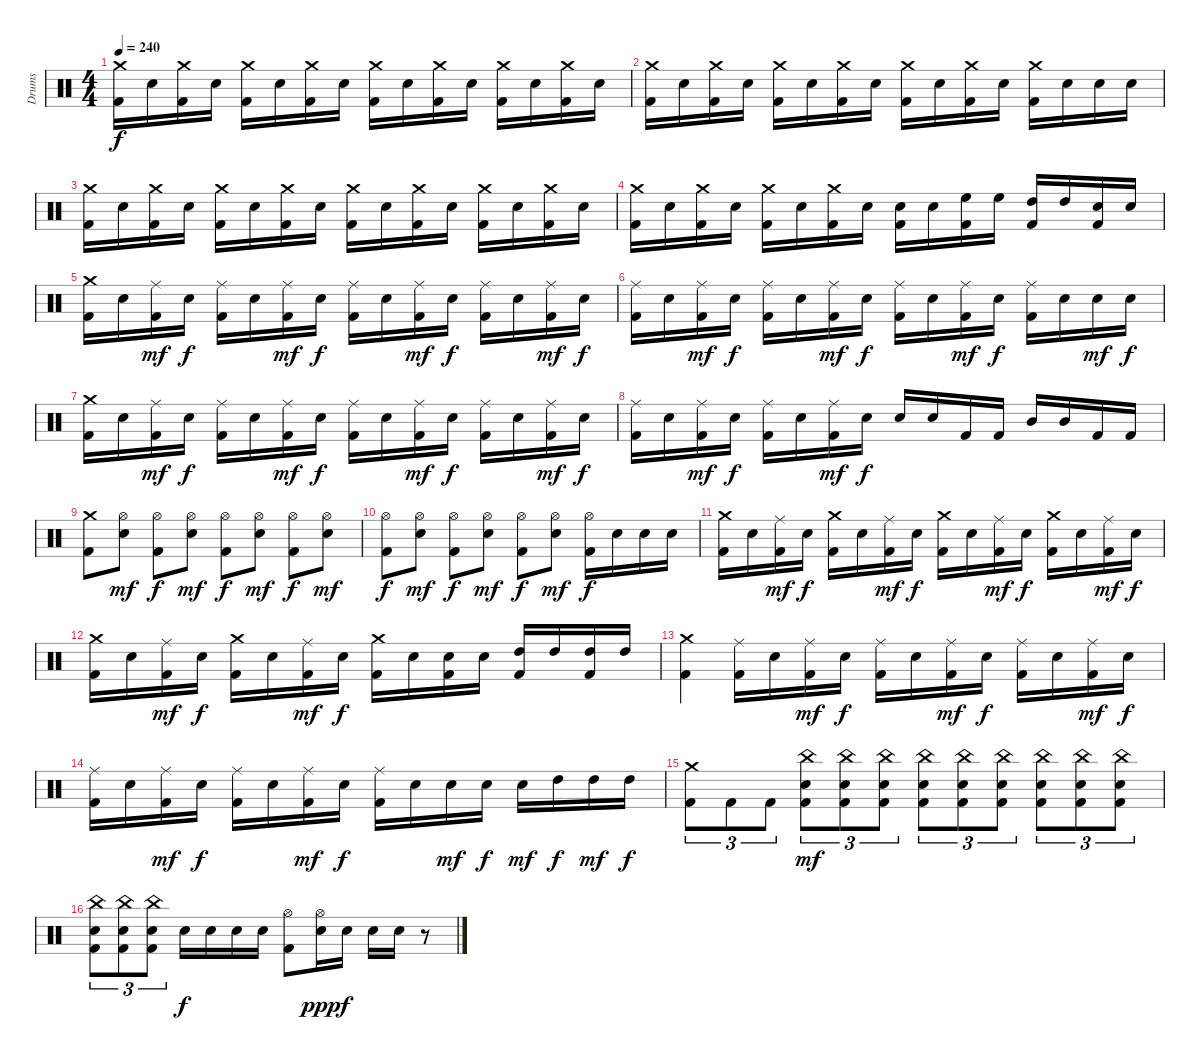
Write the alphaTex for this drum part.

\track ("Drums" "Drums") {instrument percussion}
\staff {score}
\articulation defaults
\ts (4 4)
\tempo 240
\clef neutral
\ks c
("Crash medium (hit)" "Kick (hit) 2").16{dy f} "Electric Snare (hit)".16 ("Crash medium (hit)" "Kick (hit) 2").16 "Electric Snare (hit)".16 ("Crash medium (hit)" "Kick (hit) 2").16 "Electric Snare (hit)".16 ("Crash medium (hit)" "Kick (hit) 2").16 "Electric Snare (hit)".16 ("Crash medium (hit)" "Kick (hit) 2").16 "Electric Snare (hit)".16 ("Crash medium (hit)" "Kick (hit) 2").16 "Electric Snare (hit)".16 ("Crash medium (hit)" "Kick (hit) 2").16 "Electric Snare (hit)".16 ("Crash medium (hit)" "Kick (hit) 2").16 "Electric Snare (hit)".16 |
("Crash medium (hit)" "Kick (hit) 2").16 "Electric Snare (hit)".16 ("Crash medium (hit)" "Kick (hit) 2").16 "Electric Snare (hit)".16 ("Crash medium (hit)" "Kick (hit) 2").16 "Electric Snare (hit)".16 ("Crash medium (hit)" "Kick (hit) 2").16 "Electric Snare (hit)".16 ("Crash medium (hit)" "Kick (hit) 2").16 "Electric Snare (hit)".16 ("Crash medium (hit)" "Kick (hit) 2").16 "Electric Snare (hit)".16 ("Crash medium (hit)" "Kick (hit) 2").16 "Electric Snare (hit)".16 "Electric Snare (hit)".16 "Electric Snare (hit)".16 |
("Crash medium (hit)" "Kick (hit) 2").16 "Electric Snare (hit)".16 ("Crash medium (hit)" "Kick (hit) 2").16 "Electric Snare (hit)".16 ("Crash medium (hit)" "Kick (hit) 2").16 "Electric Snare (hit)".16 ("Crash medium (hit)" "Kick (hit) 2").16 "Electric Snare (hit)".16 ("Crash medium (hit)" "Kick (hit) 2").16 "Electric Snare (hit)".16 ("Crash medium (hit)" "Kick (hit) 2").16 "Electric Snare (hit)".16 ("Crash medium (hit)" "Kick (hit) 2").16 "Electric Snare (hit)".16 ("Crash medium (hit)" "Kick (hit) 2").16 "Electric Snare (hit)".16 |
("Crash medium (hit)" "Kick (hit) 2").16 "Electric Snare (hit)".16 ("Crash medium (hit)" "Kick (hit) 2").16 "Electric Snare (hit)".16 ("Crash medium (hit)" "Kick (hit) 2").16 "Electric Snare (hit)".16 ("Crash medium (hit)" "Kick (hit) 2").16 "Electric Snare (hit)".16 ("Electric Snare (hit)" "Kick (hit) 2").16 "Electric Snare (hit)".16 ("High Floor Tom (hit)" "Kick (hit) 2").16 "High Floor Tom (hit)".16 ("High Tom (hit)" "Kick (hit) 2").16 "High Tom (hit)".16 ("Electric Snare (hit)" "Kick (hit) 2").16 "Electric Snare (hit)".16 |
("Crash medium (hit)" "Kick (hit) 2").16 "Electric Snare (hit)".16 ("Ride (middle)" "Kick (hit) 2").16{dy mf} "Electric Snare (hit)".16{dy f} ("Ride (middle)" "Kick (hit) 2").16 "Electric Snare (hit)".16 ("Ride (middle)" "Kick (hit) 2").16{dy mf} "Electric Snare (hit)".16{dy f} ("Ride (middle)" "Kick (hit) 2").16 "Electric Snare (hit)".16 ("Ride (middle)" "Kick (hit) 2").16{dy mf} "Electric Snare (hit)".16{dy f} ("Ride (middle)" "Kick (hit) 2").16 "Electric Snare (hit)".16 ("Ride (middle)" "Kick (hit) 2").16{dy mf} "Electric Snare (hit)".16{dy f} |
("Ride (middle)" "Kick (hit) 2").16 "Electric Snare (hit)".16 ("Ride (middle)" "Kick (hit) 2").16{dy mf} "Electric Snare (hit)".16{dy f} ("Ride (middle)" "Kick (hit) 2").16 "Electric Snare (hit)".16 ("Ride (middle)" "Kick (hit) 2").16{dy mf} "Electric Snare (hit)".16{dy f} ("Ride (middle)" "Kick (hit) 2").16 "Electric Snare (hit)".16 ("Ride (middle)" "Kick (hit) 2").16{dy mf} "Electric Snare (hit)".16{dy f} ("Ride (middle)" "Kick (hit) 2").16 "Electric Snare (hit)".16 "Electric Snare (hit)".16{dy mf} "Electric Snare (hit)".16{dy f} |
("Crash medium (hit)" "Kick (hit) 2").16 "Electric Snare (hit)".16 ("Ride (middle)" "Kick (hit) 2").16{dy mf} "Electric Snare (hit)".16{dy f} ("Ride (middle)" "Kick (hit) 2").16 "Electric Snare (hit)".16 ("Ride (middle)" "Kick (hit) 2").16{dy mf} "Electric Snare (hit)".16{dy f} ("Ride (middle)" "Kick (hit) 2").16 "Electric Snare (hit)".16 ("Ride (middle)" "Kick (hit) 2").16{dy mf} "Electric Snare (hit)".16{dy f} ("Ride (middle)" "Kick (hit) 2").16 "Electric Snare (hit)".16 ("Ride (middle)" "Kick (hit) 2").16{dy mf} "Electric Snare (hit)".16{dy f} |
("Ride (middle)" "Kick (hit) 2").16 "Electric Snare (hit)".16 ("Ride (middle)" "Kick (hit) 2").16{dy mf} "Electric Snare (hit)".16{dy f} ("Ride (middle)" "Kick (hit) 2").16 "Electric Snare (hit)".16 ("Ride (middle)" "Kick (hit) 2").16{dy mf} "Electric Snare (hit)".16{dy f} "Electric Snare (hit)".16 "Electric Snare (hit)".16 "Kick (hit) 2".16 "Kick (hit) 2".16 "Mid Tom (hit)".16 "Mid Tom (hit)".16 "Kick (hit) 2".16 "Kick (hit) 2".16 |
("Crash medium (hit)" "Kick (hit) 2").8 ("Hi-Hat (open)" "Electric Snare (hit)").8{dy mf} ("Hi-Hat (open)" "Kick (hit) 2").8{dy f} ("Hi-Hat (open)" "Electric Snare (hit)").8{dy mf} ("Hi-Hat (open)" "Kick (hit) 2").8{dy f} ("Hi-Hat (open)" "Electric Snare (hit)").8{dy mf} ("Hi-Hat (open)" "Kick (hit) 2").8{dy f} ("Hi-Hat (open)" "Electric Snare (hit)").8{dy mf} |
("Hi-Hat (open)" "Kick (hit) 2").8{dy f} ("Hi-Hat (open)" "Electric Snare (hit)").8{dy mf} ("Hi-Hat (open)" "Kick (hit) 2").8{dy f} ("Hi-Hat (open)" "Electric Snare (hit)").8{dy mf} ("Hi-Hat (open)" "Kick (hit) 2").8{dy f} ("Hi-Hat (open)" "Electric Snare (hit)").8{dy mf} ("Hi-Hat (open)" "Kick (hit) 2").16{dy f} "Electric Snare (hit)".16 "Electric Snare (hit)".16 "Electric Snare (hit)".16 |
("Crash medium (hit)" "Kick (hit) 2").16 "Electric Snare (hit)".16 ("Ride (middle)" "Kick (hit) 2").16{dy mf} "Electric Snare (hit)".16{dy f} ("Crash medium (hit)" "Kick (hit) 2").16 "Electric Snare (hit)".16 ("Ride (middle)" "Kick (hit) 2").16{dy mf} "Electric Snare (hit)".16{dy f} ("Crash medium (hit)" "Kick (hit) 2").16 "Electric Snare (hit)".16 ("Ride (middle)" "Kick (hit) 2").16{dy mf} "Electric Snare (hit)".16{dy f} ("Crash medium (hit)" "Kick (hit) 2").16 "Electric Snare (hit)".16 ("Ride (middle)" "Kick (hit) 2").16{dy mf} "Electric Snare (hit)".16{dy f} |
("Crash medium (hit)" "Kick (hit) 2").16 "Electric Snare (hit)".16 ("Ride (middle)" "Kick (hit) 2").16{dy mf} "Electric Snare (hit)".16{dy f} ("Crash medium (hit)" "Kick (hit) 2").16 "Electric Snare (hit)".16 ("Ride (middle)" "Kick (hit) 2").16{dy mf} "Electric Snare (hit)".16{dy f} ("Crash medium (hit)" "Kick (hit) 2").16 "Electric Snare (hit)".16 ("Electric Snare (hit)" "Kick (hit) 2").16 "Electric Snare (hit)".16 ("High Tom (hit)" "Kick (hit) 2").16 "High Tom (hit)".16 ("High Tom (hit)" "Kick (hit) 2").16 "High Tom (hit)".16 |
("Crash medium (hit)" "Kick (hit) 2").4 ("Ride (middle)" "Kick (hit) 2").16 "Electric Snare (hit)".16 ("Ride (middle)" "Kick (hit) 2").16{dy mf} "Electric Snare (hit)".16{dy f} ("Ride (middle)" "Kick (hit) 2").16 "Electric Snare (hit)".16 ("Ride (middle)" "Kick (hit) 2").16{dy mf} "Electric Snare (hit)".16{dy f} ("Ride (middle)" "Kick (hit) 2").16 "Electric Snare (hit)".16 ("Ride (middle)" "Kick (hit) 2").16{dy mf} "Electric Snare (hit)".16{dy f} |
("Ride (middle)" "Kick (hit) 2").16 "Electric Snare (hit)".16 ("Ride (middle)" "Kick (hit) 2").16{dy mf} "Electric Snare (hit)".16{dy f} ("Ride (middle)" "Kick (hit) 2").16 "Electric Snare (hit)".16 ("Ride (middle)" "Kick (hit) 2").16{dy mf} "Electric Snare (hit)".16{dy f} ("Ride (middle)" "Kick (hit) 2").16 "Electric Snare (hit)".16 "Electric Snare (hit)".16{dy mf} "Electric Snare (hit)".16{dy f} "Electric Snare (hit)".16{dy mf} "High Tom (hit)".16{dy f} "High Tom (hit)".16{dy mf} "High Tom (hit)".16{dy f} |
("Crash medium (hit)" "Kick (hit) 2").8{tu (3 2)} "Kick (hit) 2".8{tu (3 2)} "Kick (hit) 2".8{tu (3 2)} ("China (hit)" "Electric Snare (hit)" "Kick (hit) 2").8{tu (3 2) dy mf} ("China (hit)" "Electric Snare (hit)" "Kick (hit) 2").8{tu (3 2)} ("China (hit)" "Electric Snare (hit)" "Kick (hit) 2").8{tu (3 2)} ("China (hit)" "Electric Snare (hit)" "Kick (hit) 2").8{tu (3 2)} ("China (hit)" "Electric Snare (hit)" "Kick (hit) 2").8{tu (3 2)} ("China (hit)" "Electric Snare (hit)" "Kick (hit) 2").8{tu (3 2)} ("China (hit)" "Electric Snare (hit)" "Kick (hit) 2").8{tu (3 2)} ("China (hit)" "Electric Snare (hit)" "Kick (hit) 2").8{tu (3 2)} ("China (hit)" "Electric Snare (hit)" "Kick (hit) 2").8{tu (3 2)} |
("China (hit)" "Electric Snare (hit)" "Kick (hit) 2").8{tu (3 2)} ("China (hit)" "Electric Snare (hit)" "Kick (hit) 2").8{tu (3 2)} ("China (hit)" "Electric Snare (hit)" "Kick (hit) 2").8{tu (3 2)} "Electric Snare (hit)".16{dy f} "Electric Snare (hit)".16 "Electric Snare (hit)".16 "Electric Snare (hit)".16 ("Hi-Hat (open)" "Kick (hit) 2").8 ("Hi-Hat (open)" "Electric Snare (hit)").16{dy ppp} "Electric Snare (hit)".16{dy f} "Electric Snare (hit)".16 "Electric Snare (hit)".16 r.8
